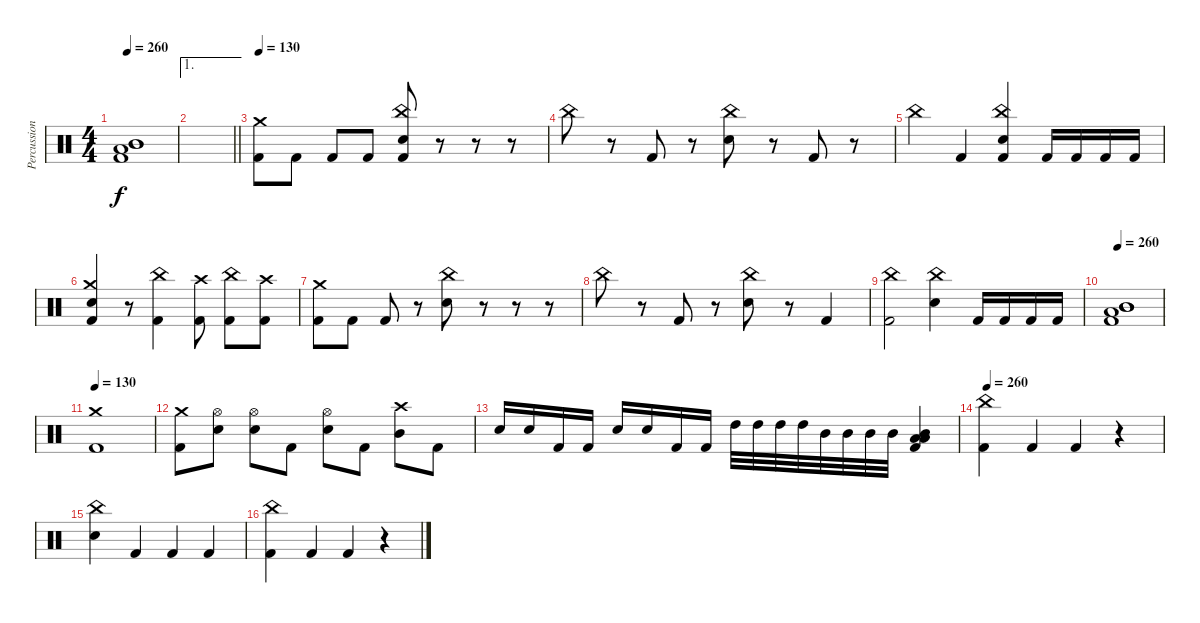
\track ("Percussion" "Percussion") {instrument percussion}
\staff {score}
\articulation defaults
\ts (4 4)
\tempo 260
\clef neutral
\ks c
("Low Tom (hit)" "Mid Tom (hit)" "Mid Tom (hit)" "Kick (hit) 2").1{dy f} |
\ae 1
\barLineRight lightlight
|
\tempo 130
("Crash medium (hit)" "Kick (hit) 2").8 "Kick (hit) 2".8 "Kick (hit) 2".8 "Kick (hit) 2".8 ("China (hit)" "Electric Snare (hit)" "Kick (hit) 2").8 r.8 r.8 r.8 |
"China (hit)".8 r.8 "Kick (hit) 2".8 r.8 ("China (hit)" "Electric Snare (hit)").8 r.8 "Kick (hit) 2".8 r.8 |
"China (hit)".4 "Kick (hit) 2".4 ("China (hit)" "Electric Snare (hit)" "Kick (hit) 2").4 "Kick (hit) 2".16 "Kick (hit) 2".16 "Kick (hit) 2".16 "Kick (hit) 2".16 |
("Crash medium (hit)" "Electric Snare (hit)" "Kick (hit) 2").4 r.8 ("China (hit)" "Kick (hit) 2").4 ("Crash high (hit)" "Kick (hit) 2").8 ("China (hit)" "Kick (hit) 2").8 ("Crash high (hit)" "Kick (hit) 2").8 |
("Crash medium (hit)" "Kick (hit) 2").8 "Kick (hit) 2".8 "Kick (hit) 2".8 r.8 ("China (hit)" "Electric Snare (hit)").8 r.8 r.8 r.8 |
"China (hit)".8 r.8 "Kick (hit) 2".8 r.8 ("China (hit)" "Electric Snare (hit)").8 r.8 "Kick (hit) 2".4 |
("China (hit)" "Kick (hit) 2").2 ("China (hit)" "Electric Snare (hit)").4 "Kick (hit) 2".16 "Kick (hit) 2".16 "Kick (hit) 2".16 "Kick (hit) 2".16 |
\tempo 260
("Low Tom (hit)" "Mid Tom (hit)" "Mid Tom (hit)" "Kick (hit) 2").1 |
\tempo 130
("Crash medium (hit)" "Kick (hit) 2").1 |
("Crash medium (hit)" "Kick (hit) 2").8 ("Hi-Hat (open)" "Electric Snare (hit)").8 ("Hi-Hat (open)" "Electric Snare (hit)").8 "Kick (hit) 2".8 ("Hi-Hat (open)" "Electric Snare (hit)").8 "Kick (hit) 2".8 ("Crash high (hit)" "Mid Tom (hit)").8 "Kick (hit) 2".8 |
"Electric Snare (hit)".16 "Electric Snare (hit)".16 "Kick (hit) 2".16 "Kick (hit) 2".16 "Electric Snare (hit)".16 "Electric Snare (hit)".16 "Kick (hit) 2".16 "Kick (hit) 2".16 "High Tom (hit)".32 "High Tom (hit)".32 "High Tom (hit)".32 "High Tom (hit)".32 "Mid Tom (hit)".32 "Mid Tom (hit)".32 "Mid Tom (hit)".32 "Mid Tom (hit)".32 ("Mid Tom (hit)" "Low Tom (hit)" "Low Tom (hit)" "Kick (hit) 2").4 |
\tempo 260
("China (hit)" "Kick (hit) 2").4 "Kick (hit) 2".4 "Kick (hit) 2".4 r.4 |
("China (hit)" "Electric Snare (hit)").4 "Kick (hit) 2".4 "Kick (hit) 2".4 "Kick (hit) 2".4 |
("China (hit)" "Kick (hit) 2").4 "Kick (hit) 2".4 "Kick (hit) 2".4 r.4
